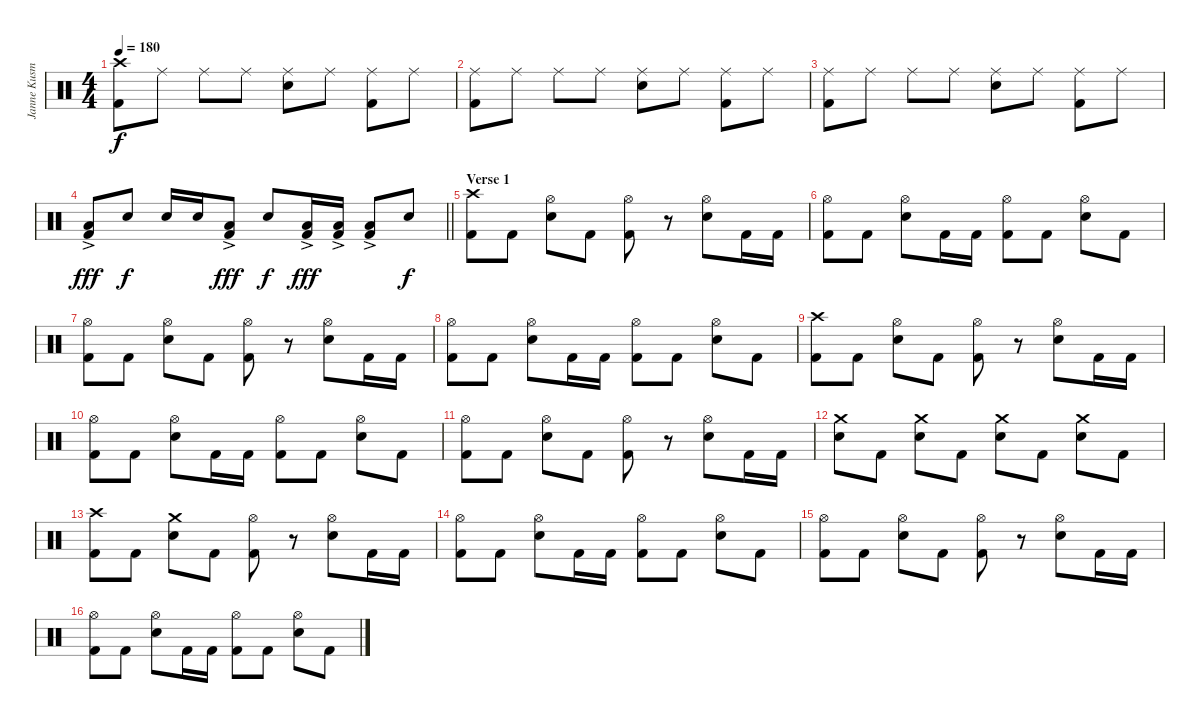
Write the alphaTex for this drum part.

\track ("Janne Kusmin - Drums" "Janne Kusm") {instrument percussion}
\staff {score}
\articulation defaults
\ts (4 4)
\tempo 180
\clef neutral
\ks c
("Crash high (hit)" "Kick (hit) 2").8{dy f} "Ride (middle)".8 "Ride (middle)".8 "Ride (middle)".8 ("Ride (middle)" "Electric Snare (hit)").8 "Ride (middle)".8 ("Ride (middle)" "Kick (hit) 2").8 "Ride (middle)".8 |
("Ride (middle)" "Kick (hit) 2").8 "Ride (middle)".8 "Ride (middle)".8 "Ride (middle)".8 ("Ride (middle)" "Electric Snare (hit)").8 "Ride (middle)".8 ("Ride (middle)" "Kick (hit) 2").8 "Ride (middle)".8 |
("Ride (middle)" "Kick (hit) 2").8 "Ride (middle)".8 "Ride (middle)".8 "Ride (middle)".8 ("Ride (middle)" "Electric Snare (hit)").8 "Ride (middle)".8 ("Ride (middle)" "Kick (hit) 2").8 "Ride (middle)".8 |
\barLineRight lightlight
("Low Tom (hit)"{ac} "Kick (hit) 2").8{dy fff} "Electric Snare (hit)".8{dy f} "Electric Snare (hit)".16 "Electric Snare (hit)".16 ("Low Tom (hit)"{ac} "Kick (hit) 2").8{dy fff} "Electric Snare (hit)".8{dy f} ("Low Tom (hit)"{ac} "Kick (hit) 2").16{dy fff} ("Low Tom (hit)"{ac} "Kick (hit) 2").16 ("Low Tom (hit)"{ac} "Kick (hit) 2").8 "Electric Snare (hit)".8{dy f} |
\section ("" "Verse 1")
("Crash high (hit)" "Kick (hit) 2").8 "Kick (hit) 2".8 ("Hi-Hat (open)" "Electric Snare (hit)").8 "Kick (hit) 2".8 ("Hi-Hat (open)" "Kick (hit) 2").8 r.8 ("Hi-Hat (open)" "Electric Snare (hit)").8 "Kick (hit) 2".16 "Kick (hit) 2".16 |
("Hi-Hat (open)" "Kick (hit) 2").8 "Kick (hit) 2".8 ("Hi-Hat (open)" "Electric Snare (hit)").8 "Kick (hit) 2".16 "Kick (hit) 2".16 ("Hi-Hat (open)" "Kick (hit) 2").8 "Kick (hit) 2".8 ("Hi-Hat (open)" "Electric Snare (hit)").8 "Kick (hit) 2".8 |
("Hi-Hat (open)" "Kick (hit) 2").8 "Kick (hit) 2".8 ("Hi-Hat (open)" "Electric Snare (hit)").8 "Kick (hit) 2".8 ("Hi-Hat (open)" "Kick (hit) 2").8 r.8 ("Hi-Hat (open)" "Electric Snare (hit)").8 "Kick (hit) 2".16 "Kick (hit) 2".16 |
("Hi-Hat (open)" "Kick (hit) 2").8 "Kick (hit) 2".8 ("Hi-Hat (open)" "Electric Snare (hit)").8 "Kick (hit) 2".16 "Kick (hit) 2".16 ("Hi-Hat (open)" "Kick (hit) 2").8 "Kick (hit) 2".8 ("Hi-Hat (open)" "Electric Snare (hit)").8 "Kick (hit) 2".8 |
("Crash high (hit)" "Kick (hit) 2").8 "Kick (hit) 2".8 ("Hi-Hat (open)" "Electric Snare (hit)").8 "Kick (hit) 2".8 ("Hi-Hat (open)" "Kick (hit) 2").8 r.8 ("Hi-Hat (open)" "Electric Snare (hit)").8 "Kick (hit) 2".16 "Kick (hit) 2".16 |
("Hi-Hat (open)" "Kick (hit) 2").8 "Kick (hit) 2".8 ("Hi-Hat (open)" "Electric Snare (hit)").8 "Kick (hit) 2".16 "Kick (hit) 2".16 ("Hi-Hat (open)" "Kick (hit) 2").8 "Kick (hit) 2".8 ("Hi-Hat (open)" "Electric Snare (hit)").8 "Kick (hit) 2".8 |
("Hi-Hat (open)" "Kick (hit) 2").8 "Kick (hit) 2".8 ("Hi-Hat (open)" "Electric Snare (hit)").8 "Kick (hit) 2".8 ("Hi-Hat (open)" "Kick (hit) 2").8 r.8 ("Hi-Hat (open)" "Electric Snare (hit)").8 "Kick (hit) 2".16 "Kick (hit) 2".16 |
("Crash medium (hit)" "Electric Snare (hit)").8 "Kick (hit) 2".8 ("Crash medium (hit)" "Electric Snare (hit)").8 "Kick (hit) 2".8 ("Crash medium (hit)" "Electric Snare (hit)").8 "Kick (hit) 2".8 ("Crash medium (hit)" "Electric Snare (hit)").8 "Kick (hit) 2".8 |
("Crash high (hit)" "Kick (hit) 2").8 "Kick (hit) 2".8 ("Crash medium (hit)" "Electric Snare (hit)").8 "Kick (hit) 2".8 ("Hi-Hat (open)" "Kick (hit) 2").8 r.8 ("Hi-Hat (open)" "Electric Snare (hit)").8 "Kick (hit) 2".16 "Kick (hit) 2".16 |
("Hi-Hat (open)" "Kick (hit) 2").8 "Kick (hit) 2".8 ("Hi-Hat (open)" "Electric Snare (hit)").8 "Kick (hit) 2".16 "Kick (hit) 2".16 ("Hi-Hat (open)" "Kick (hit) 2").8 "Kick (hit) 2".8 ("Hi-Hat (open)" "Electric Snare (hit)").8 "Kick (hit) 2".8 |
("Hi-Hat (open)" "Kick (hit) 2").8 "Kick (hit) 2".8 ("Hi-Hat (open)" "Electric Snare (hit)").8 "Kick (hit) 2".8 ("Hi-Hat (open)" "Kick (hit) 2").8 r.8 ("Hi-Hat (open)" "Electric Snare (hit)").8 "Kick (hit) 2".16 "Kick (hit) 2".16 |
("Hi-Hat (open)" "Kick (hit) 2").8 "Kick (hit) 2".8 ("Hi-Hat (open)" "Electric Snare (hit)").8 "Kick (hit) 2".16 "Kick (hit) 2".16 ("Hi-Hat (open)" "Kick (hit) 2").8 "Kick (hit) 2".8 ("Hi-Hat (open)" "Electric Snare (hit)").8 "Kick (hit) 2".8
